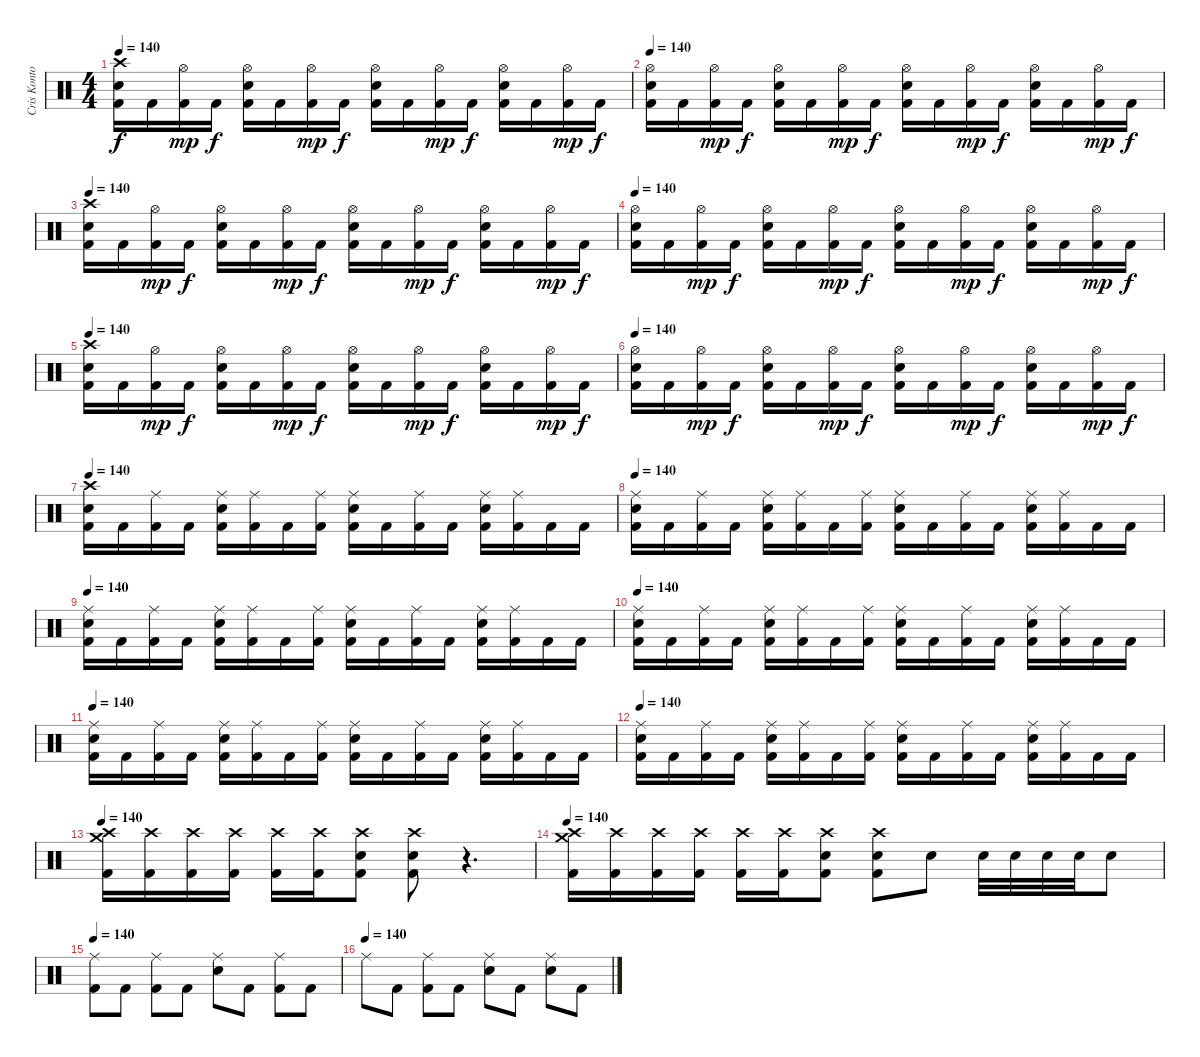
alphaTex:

\track ("Cris Kontos" "Cris Konto") {instrument percussion}
\staff {score}
\articulation defaults
\ts (4 4)
\tempo 140
\clef neutral
\ks c
("Crash high (hit)" "Electric Snare (hit)" "Kick (hit) 2").16{dy f} "Kick (hit) 2".16 ("Hi-Hat (open)" "Kick (hit) 2").16{dy mp} "Kick (hit) 2".16{dy f} ("Hi-Hat (open)" "Electric Snare (hit)" "Kick (hit) 2").16 "Kick (hit) 2".16 ("Hi-Hat (open)" "Kick (hit) 2").16{dy mp} "Kick (hit) 2".16{dy f} ("Hi-Hat (open)" "Electric Snare (hit)" "Kick (hit) 2").16 "Kick (hit) 2".16 ("Hi-Hat (open)" "Kick (hit) 2").16{dy mp} "Kick (hit) 2".16{dy f} ("Hi-Hat (open)" "Electric Snare (hit)" "Kick (hit) 2").16 "Kick (hit) 2".16 ("Hi-Hat (open)" "Kick (hit) 2").16{dy mp} "Kick (hit) 2".16{dy f} |
\tempo 140
("Hi-Hat (open)" "Electric Snare (hit)" "Kick (hit) 2").16 "Kick (hit) 2".16 ("Hi-Hat (open)" "Kick (hit) 2").16{dy mp} "Kick (hit) 2".16{dy f} ("Hi-Hat (open)" "Electric Snare (hit)" "Kick (hit) 2").16 "Kick (hit) 2".16 ("Hi-Hat (open)" "Kick (hit) 2").16{dy mp} "Kick (hit) 2".16{dy f} ("Hi-Hat (open)" "Electric Snare (hit)" "Kick (hit) 2").16 "Kick (hit) 2".16 ("Hi-Hat (open)" "Kick (hit) 2").16{dy mp} "Kick (hit) 2".16{dy f} ("Hi-Hat (open)" "Electric Snare (hit)" "Kick (hit) 2").16 "Kick (hit) 2".16 ("Hi-Hat (open)" "Kick (hit) 2").16{dy mp} "Kick (hit) 2".16{dy f} |
\tempo 140
("Crash high (hit)" "Electric Snare (hit)" "Kick (hit) 2").16 "Kick (hit) 2".16 ("Hi-Hat (open)" "Kick (hit) 2").16{dy mp} "Kick (hit) 2".16{dy f} ("Hi-Hat (open)" "Electric Snare (hit)" "Kick (hit) 2").16 "Kick (hit) 2".16 ("Hi-Hat (open)" "Kick (hit) 2").16{dy mp} "Kick (hit) 2".16{dy f} ("Hi-Hat (open)" "Electric Snare (hit)" "Kick (hit) 2").16 "Kick (hit) 2".16 ("Hi-Hat (open)" "Kick (hit) 2").16{dy mp} "Kick (hit) 2".16{dy f} ("Hi-Hat (open)" "Electric Snare (hit)" "Kick (hit) 2").16 "Kick (hit) 2".16 ("Hi-Hat (open)" "Kick (hit) 2").16{dy mp} "Kick (hit) 2".16{dy f} |
\tempo 140
("Hi-Hat (open)" "Electric Snare (hit)" "Kick (hit) 2").16 "Kick (hit) 2".16 ("Hi-Hat (open)" "Kick (hit) 2").16{dy mp} "Kick (hit) 2".16{dy f} ("Hi-Hat (open)" "Electric Snare (hit)" "Kick (hit) 2").16 "Kick (hit) 2".16 ("Hi-Hat (open)" "Kick (hit) 2").16{dy mp} "Kick (hit) 2".16{dy f} ("Hi-Hat (open)" "Electric Snare (hit)" "Kick (hit) 2").16 "Kick (hit) 2".16 ("Hi-Hat (open)" "Kick (hit) 2").16{dy mp} "Kick (hit) 2".16{dy f} ("Hi-Hat (open)" "Electric Snare (hit)" "Kick (hit) 2").16 "Kick (hit) 2".16 ("Hi-Hat (open)" "Kick (hit) 2").16{dy mp} "Kick (hit) 2".16{dy f} |
\tempo 140
("Crash high (hit)" "Electric Snare (hit)" "Kick (hit) 2").16 "Kick (hit) 2".16 ("Hi-Hat (open)" "Kick (hit) 2").16{dy mp} "Kick (hit) 2".16{dy f} ("Hi-Hat (open)" "Electric Snare (hit)" "Kick (hit) 2").16 "Kick (hit) 2".16 ("Hi-Hat (open)" "Kick (hit) 2").16{dy mp} "Kick (hit) 2".16{dy f} ("Hi-Hat (open)" "Electric Snare (hit)" "Kick (hit) 2").16 "Kick (hit) 2".16 ("Hi-Hat (open)" "Kick (hit) 2").16{dy mp} "Kick (hit) 2".16{dy f} ("Hi-Hat (open)" "Electric Snare (hit)" "Kick (hit) 2").16 "Kick (hit) 2".16 ("Hi-Hat (open)" "Kick (hit) 2").16{dy mp} "Kick (hit) 2".16{dy f} |
\tempo 140
("Hi-Hat (open)" "Electric Snare (hit)" "Kick (hit) 2").16 "Kick (hit) 2".16 ("Hi-Hat (open)" "Kick (hit) 2").16{dy mp} "Kick (hit) 2".16{dy f} ("Hi-Hat (open)" "Electric Snare (hit)" "Kick (hit) 2").16 "Kick (hit) 2".16 ("Hi-Hat (open)" "Kick (hit) 2").16{dy mp} "Kick (hit) 2".16{dy f} ("Hi-Hat (open)" "Electric Snare (hit)" "Kick (hit) 2").16 "Kick (hit) 2".16 ("Hi-Hat (open)" "Kick (hit) 2").16{dy mp} "Kick (hit) 2".16{dy f} ("Hi-Hat (open)" "Electric Snare (hit)" "Kick (hit) 2").16 "Kick (hit) 2".16 ("Hi-Hat (open)" "Kick (hit) 2").16{dy mp} "Kick (hit) 2".16{dy f} |
\tempo 140
("Crash high (hit)" "Electric Snare (hit)" "Kick (hit) 2").16 "Kick (hit) 2".16 ("Ride (middle)" "Kick (hit) 2").16 "Kick (hit) 2".16 ("Ride (middle)" "Electric Snare (hit)" "Kick (hit) 2").16 ("Ride (middle)" "Kick (hit) 2").16 "Kick (hit) 2".16 ("Ride (middle)" "Kick (hit) 2").16 ("Ride (middle)" "Electric Snare (hit)" "Kick (hit) 2").16 "Kick (hit) 2".16 ("Ride (middle)" "Kick (hit) 2").16 "Kick (hit) 2".16 ("Ride (middle)" "Electric Snare (hit)" "Kick (hit) 2").16 ("Ride (middle)" "Kick (hit) 2").16 "Kick (hit) 2".16 "Kick (hit) 2".16 |
\tempo 140
("Ride (middle)" "Electric Snare (hit)" "Kick (hit) 2").16 "Kick (hit) 2".16 ("Ride (middle)" "Kick (hit) 2").16 "Kick (hit) 2".16 ("Ride (middle)" "Electric Snare (hit)" "Kick (hit) 2").16 ("Ride (middle)" "Kick (hit) 2").16 "Kick (hit) 2".16 ("Ride (middle)" "Kick (hit) 2").16 ("Ride (middle)" "Electric Snare (hit)" "Kick (hit) 2").16 "Kick (hit) 2".16 ("Ride (middle)" "Kick (hit) 2").16 "Kick (hit) 2".16 ("Ride (middle)" "Electric Snare (hit)" "Kick (hit) 2").16 ("Ride (middle)" "Kick (hit) 2").16 "Kick (hit) 2".16 "Kick (hit) 2".16 |
\tempo 140
("Ride (middle)" "Electric Snare (hit)" "Kick (hit) 2").16 "Kick (hit) 2".16 ("Ride (middle)" "Kick (hit) 2").16 "Kick (hit) 2".16 ("Ride (middle)" "Electric Snare (hit)" "Kick (hit) 2").16 ("Ride (middle)" "Kick (hit) 2").16 "Kick (hit) 2".16 ("Ride (middle)" "Kick (hit) 2").16 ("Ride (middle)" "Electric Snare (hit)" "Kick (hit) 2").16 "Kick (hit) 2".16 ("Ride (middle)" "Kick (hit) 2").16 "Kick (hit) 2".16 ("Ride (middle)" "Electric Snare (hit)" "Kick (hit) 2").16 ("Ride (middle)" "Kick (hit) 2").16 "Kick (hit) 2".16 "Kick (hit) 2".16 |
\tempo 140
("Ride (middle)" "Electric Snare (hit)" "Kick (hit) 2").16 "Kick (hit) 2".16 ("Ride (middle)" "Kick (hit) 2").16 "Kick (hit) 2".16 ("Ride (middle)" "Electric Snare (hit)" "Kick (hit) 2").16 ("Ride (middle)" "Kick (hit) 2").16 "Kick (hit) 2".16 ("Ride (middle)" "Kick (hit) 2").16 ("Ride (middle)" "Electric Snare (hit)" "Kick (hit) 2").16 "Kick (hit) 2".16 ("Ride (middle)" "Kick (hit) 2").16 "Kick (hit) 2".16 ("Ride (middle)" "Electric Snare (hit)" "Kick (hit) 2").16 ("Ride (middle)" "Kick (hit) 2").16 "Kick (hit) 2".16 "Kick (hit) 2".16 |
\tempo 140
("Ride (middle)" "Electric Snare (hit)" "Kick (hit) 2").16 "Kick (hit) 2".16 ("Ride (middle)" "Kick (hit) 2").16 "Kick (hit) 2".16 ("Ride (middle)" "Electric Snare (hit)" "Kick (hit) 2").16 ("Ride (middle)" "Kick (hit) 2").16 "Kick (hit) 2".16 ("Ride (middle)" "Kick (hit) 2").16 ("Ride (middle)" "Electric Snare (hit)" "Kick (hit) 2").16 "Kick (hit) 2".16 ("Ride (middle)" "Kick (hit) 2").16 "Kick (hit) 2".16 ("Ride (middle)" "Electric Snare (hit)" "Kick (hit) 2").16 ("Ride (middle)" "Kick (hit) 2").16 "Kick (hit) 2".16 "Kick (hit) 2".16 |
\tempo 140
("Ride (middle)" "Electric Snare (hit)" "Kick (hit) 2").16 "Kick (hit) 2".16 ("Ride (middle)" "Kick (hit) 2").16 "Kick (hit) 2".16 ("Ride (middle)" "Electric Snare (hit)" "Kick (hit) 2").16 ("Ride (middle)" "Kick (hit) 2").16 "Kick (hit) 2".16 ("Ride (middle)" "Kick (hit) 2").16 ("Ride (middle)" "Electric Snare (hit)" "Kick (hit) 2").16 "Kick (hit) 2".16 ("Ride (middle)" "Kick (hit) 2").16 "Kick (hit) 2".16 ("Ride (middle)" "Electric Snare (hit)" "Kick (hit) 2").16 ("Ride (middle)" "Kick (hit) 2").16 "Kick (hit) 2".16 "Kick (hit) 2".16 |
\tempo 140
("Crash high (hit)" "Crash medium (hit)" "Kick (hit) 2").16 ("Crash high (hit)" "Kick (hit) 2").16 ("Crash high (hit)" "Kick (hit) 2").16 ("Crash high (hit)" "Kick (hit) 2").16 ("Crash high (hit)" "Kick (hit) 2").16 ("Crash high (hit)" "Kick (hit) 2").16 ("Crash high (hit)" "Electric Snare (hit)" "Kick (hit) 2").8 ("Crash high (hit)" "Electric Snare (hit)" "Kick (hit) 2").8 r.4{d} |
\tempo 140
("Crash high (hit)" "Crash medium (hit)" "Kick (hit) 2").16 ("Crash high (hit)" "Kick (hit) 2").16 ("Crash high (hit)" "Kick (hit) 2").16 ("Crash high (hit)" "Kick (hit) 2").16 ("Crash high (hit)" "Kick (hit) 2").16 ("Crash high (hit)" "Kick (hit) 2").16 ("Crash high (hit)" "Electric Snare (hit)" "Kick (hit) 2").8 ("Crash high (hit)" "Electric Snare (hit)" "Kick (hit) 2").8 "Electric Snare (hit)".8 "Electric Snare (hit)".32 "Electric Snare (hit)".32 "Electric Snare (hit)".32 "Electric Snare (hit)".32 "Electric Snare (hit)".8 |
\tempo 140
("Ride (middle)" "Kick (hit) 2").8 "Kick (hit) 2".8 ("Ride (middle)" "Kick (hit) 2").8 "Kick (hit) 2".8 ("Ride (middle)" "Electric Snare (hit)").8 "Kick (hit) 2".8 ("Ride (middle)" "Kick (hit) 2").8 "Kick (hit) 2".8 |
\tempo (140)
"Ride (middle)".8 "Kick (hit) 2".8 ("Ride (middle)" "Kick (hit) 2").8 "Kick (hit) 2".8 ("Ride (middle)" "Electric Snare (hit)").8 "Kick (hit) 2".8 ("Ride (middle)" "Electric Snare (hit)").8 "Kick (hit) 2".8
